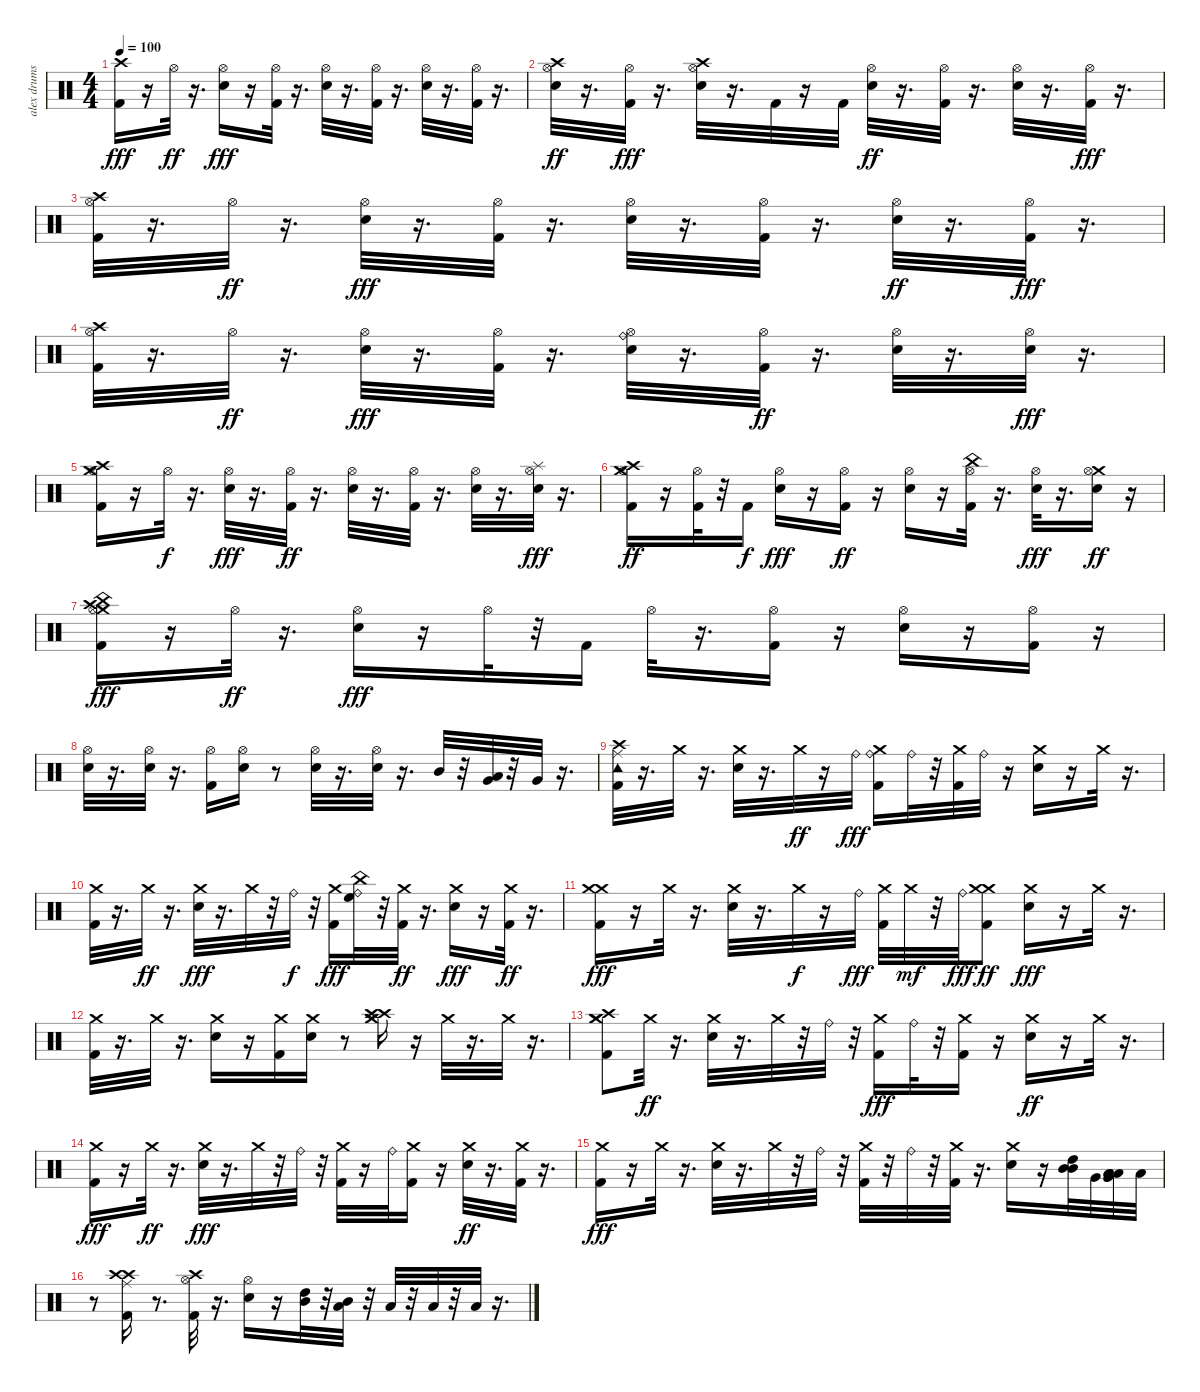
\track ("alex drums" "alex drums") {instrument percussion}
\staff {score}
\articulation defaults
\ts (4 4)
\tempo 100
\clef neutral
\ks c
("Crash high (hit)" "Kick (hit) 2").16{dy fff} r.16 "Hi-Hat (open)".32{dy ff} r.16{d} ("Electric Snare (hit)" "Hi-Hat (open)").16{dy fff} r.16 ("Hi-Hat (open)" "Kick (hit) 2").32 r.16{d} ("Electric Snare (hit)" "Hi-Hat (open)").32 r.16{d} ("Kick (hit) 2" "Hi-Hat (open)").32 r.16{d} ("Electric Snare (hit)" "Hi-Hat (open)").32 r.16{d} ("Hi-Hat (open)" "Kick (hit) 2").32 r.16{d} |
("Electric Snare (hit)" "Hi-Hat (open)" "Crash high (hit)").32{dy ff} r.16{d} ("Kick (hit) 2" "Hi-Hat (open)").32{dy fff} r.16{d} ("Crash high (hit)" "Electric Snare (hit)" "Hi-Hat (open)").32 r.16{d} "Kick (hit) 2".32 r.16 "Kick (hit) 2".32 ("Electric Snare (hit)" "Hi-Hat (open)").32{dy ff} r.16{d} ("Hi-Hat (open)" "Kick (hit) 2").32 r.16{d} ("Hi-Hat (open)" "Electric Snare (hit)").32 r.16{d} ("Hi-Hat (open)" "Kick (hit) 2").32{dy fff} r.16{d} |
("Kick (hit) 2" "Hi-Hat (open)" "Crash high (hit)").32 r.16{d} "Hi-Hat (open)".32{dy ff} r.16{d} ("Hi-Hat (open)" "Electric Snare (hit)").32{dy fff} r.16{d} ("Hi-Hat (open)" "Kick (hit) 2").32 r.16{d} ("Electric Snare (hit)" "Hi-Hat (open)").32 r.16{d} ("Hi-Hat (open)" "Kick (hit) 2").32 r.16{d} ("Hi-Hat (open)" "Electric Snare (hit)").32{dy ff} r.16{d} ("Kick (hit) 2" "Hi-Hat (open)").32{dy fff} r.16{d} |
("Hi-Hat (open)" "Kick (hit) 2" "Crash high (hit)").32 r.16{d} "Hi-Hat (open)".32{dy ff} r.16{d} ("Hi-Hat (open)" "Electric Snare (hit)").32{dy fff} r.16{d} ("Hi-Hat (open)" "Kick (hit) 2").32 r.16{d} ("Ride (bell)" "Hi-Hat (open)" "Electric Snare (hit)").32 r.16{d} ("Hi-Hat (open)" "Kick (hit) 2").32{dy ff} r.16{d} ("Hi-Hat (open)" "Electric Snare (hit)").32 r.16{d} ("Hi-Hat (open)" "Electric Snare (hit)").32{dy fff} r.16{d} |
("Crash medium (hit)" "Crash high (hit)" "Hi-Hat (open)" "Kick (hit) 2").16 r.16 "Hi-Hat (open)".32{dy f} r.16{d} ("Electric Snare (hit)" "Hi-Hat (open)").32{dy fff} r.16{d} ("Hi-Hat (open)" "Kick (hit) 2").32{dy ff} r.16{d} ("Hi-Hat (open)" "Electric Snare (hit)").32 r.16{d} ("Hi-Hat (open)" "Kick (hit) 2").32 r.16{d} ("Hi-Hat (open)" "Electric Snare (hit)").32 r.16{d} ("Splash (hit)" "Hi-Hat (open)" "Electric Snare (hit)").32{dy fff} r.16{d} |
("Crash medium (hit)" "Hi-Hat (open)" "Crash high (hit)" "Kick (hit) 2").16{dy ff} r.16 ("Hi-Hat (open)" "Kick (hit) 2").32 r.32 "Kick (hit) 2".16{dy f} ("Hi-Hat (open)" "Electric Snare (hit)").16{dy fff} r.16 ("Hi-Hat (open)" "Kick (hit) 2").16{dy ff} r.16 ("Hi-Hat (open)" "Electric Snare (hit)").16 r.16 ("China (hit)" "Hi-Hat (open)" "Kick (hit) 2").32 r.16{d} ("Electric Snare (hit)" "Hi-Hat (open)").32{dy fff} r.16{d} ("Crash medium (hit)" "Hi-Hat (open)" "Electric Snare (hit)").16{dy ff} r.16 |
("Crash medium (hit)" "Hi-Hat (open)" "Crash high (hit)" "Kick (hit) 2" "China (hit)").16{dy fff} r.16 "Hi-Hat (open)".32{dy ff} r.16{d} ("Hi-Hat (open)" "Electric Snare (hit)").16{dy fff} r.16 "Hi-Hat (open)".32 r.32 "Kick (hit) 2".16 "Hi-Hat (open)".32 r.16{d} ("Hi-Hat (open)" "Kick (hit) 2").16 r.16 ("Hi-Hat (open)" "Electric Snare (hit)").16 r.16 ("Kick (hit) 2" "Hi-Hat (open)").16 r.16 |
("Hi-Hat (open)" "Electric Snare (hit)").32 r.16{d} ("Hi-Hat (open)" "Electric Snare (hit)").32 r.16{d} ("Hi-Hat (open)" "Kick (hit) 2").16 ("Hi-Hat (open)" "Electric Snare (hit)").16 r.8 ("Hi-Hat (open)" "Electric Snare (hit)").32 r.16{d} ("Hi-Hat (open)" "Electric Snare (hit)").32 r.16{d} "Mid Tom (hit)".32 r.32 ("Low Tom (hit)" "Very Low Tom (hit)").32 r.32 "Very Low Tom (hit)".32 r.16{d} |
("Tambourine (hit)" "Ride (middle)" "Crash high (hit)" "Kick (hit) 2").32 r.16{d} "Crash medium (hit)".32 r.16{d} ("Crash medium (hit)" "Electric Snare (hit)").32 r.16{d} "Crash medium (hit)".32{dy ff} r.16 "Ride (bell)".32{dy fff} ("Kick (hit) 2" "Crash medium (hit)" "Ride (bell)").16 "Ride (bell)".32 r.32 ("Crash medium (hit)" "Kick (hit) 2").32 "Ride (bell)".32 r.16 ("Electric Snare (hit)" "Crash medium (hit)").16 r.16 "Crash medium (hit)".32 r.16{d} |
("Crash medium (hit)" "Kick (hit) 2").32 r.16{d} "Crash medium (hit)".32{dy ff} r.16{d} ("Crash medium (hit)" "Electric Snare (hit)").32{dy fff} r.16{d} "Crash medium (hit)".32 r.32 "Ride (bell)".32{dy f} r.32 ("Kick (hit) 2" "Crash medium (hit)").16{dy fff} ("High Floor Tom (hit)" "Ride (bell)" "China (hit)").32 r.32 ("Kick (hit) 2" "Crash medium (hit)").32{dy ff} r.16{d} ("Electric Snare (hit)" "Crash medium (hit)").16{dy fff} r.16 ("Crash medium (hit)" "Kick (hit) 2").32{dy ff} r.16{d} |
("Crash medium (hit)" "Crash medium (hit)" "Kick (hit) 2").16{dy fff} r.16 "Crash medium (hit)".32 r.16{d} ("Crash medium (hit)" "Electric Snare (hit)").32 r.16{d} "Crash medium (hit)".32{dy f} r.16 "Ride (bell)".32{dy fff} ("Crash medium (hit)" "Kick (hit) 2").32 "Crash medium (hit)".32{dy mf} r.32 "Ride (bell)".32{dy fff} ("Kick (hit) 2" "Crash medium (hit)" "Crash medium (hit)").8{dy ff} ("Crash medium (hit)" "Electric Snare (hit)").16{dy fff} r.16 "Crash medium (hit)".32 r.16{d} |
("Crash medium (hit)" "Kick (hit) 2").32 r.16{d} "Crash medium (hit)".32 r.16{d} ("Crash medium (hit)" "Electric Snare (hit)").16 r.16 ("Crash medium (hit)" "Kick (hit) 2").16 ("Crash medium (hit)" "Electric Snare (hit)").16 r.8 ("Crash high (hit)" "Crash medium (hit)" "Crash high (hit)" "Crash medium (hit)").16 r.16 "Crash medium (hit)".32 r.16{d} "Crash medium (hit)".32 r.16{d} |
("Crash high (hit)" "Crash medium (hit)" "Crash medium (hit)" "Kick (hit) 2").8 "Crash medium (hit)".32{dy ff} r.16{d} ("Crash medium (hit)" "Electric Snare (hit)").32 r.16{d} "Crash medium (hit)".32 r.32 "Ride (bell)".32 r.32 ("Crash medium (hit)" "Kick (hit) 2").16{dy fff} "Ride (bell)".32 r.32 ("Crash medium (hit)" "Kick (hit) 2").16 r.16 ("Crash medium (hit)" "Electric Snare (hit)").16{dy ff} r.16 "Crash medium (hit)".32 r.16{d} |
("Kick (hit) 2" "Crash medium (hit)").16{dy fff} r.16 "Crash medium (hit)".32{dy ff} r.16{d} ("Crash medium (hit)" "Electric Snare (hit)").32{dy fff} r.16{d} "Crash medium (hit)".32 r.32 "Ride (bell)".32 r.32 ("Crash medium (hit)" "Kick (hit) 2").32 r.16 "Ride (bell)".32 ("Crash medium (hit)" "Kick (hit) 2").16 r.16 ("Crash medium (hit)" "Electric Snare (hit)").32{dy ff} r.16{d} ("Kick (hit) 2" "Crash medium (hit)").32 r.16{d} |
("Kick (hit) 2" "Crash medium (hit)").16{dy fff} r.16 "Crash medium (hit)".32 r.16{d} ("Crash medium (hit)" "Electric Snare (hit)").32 r.16{d} "Crash medium (hit)".32 r.32 "Ride (bell)".32 r.32 ("Crash medium (hit)" "Kick (hit) 2").32 r.32 "Ride (bell)".32 r.32 ("Kick (hit) 2" "Crash medium (hit)").32 r.16{d} ("Crash medium (hit)" "Electric Snare (hit)").16 r.16 ("Mid Tom (hit)" "Mid Tom (hit)" "High Tom (hit)").32 "Very Low Tom (hit)".32 ("Low Tom (hit)" "Very Low Tom (hit)" "Very Low Tom (hit)" "Low Floor Tom (hit)" "Low Tom (hit)").32 "Low Floor Tom (hit)".32 |
r.8 ("Crash high (hit)" "Ride (middle)" "Crash high (hit)" "Kick (hit) 2").16 r.8{d} ("Hi-Hat (open)" "Crash high (hit)" "Kick (hit) 2").32 r.16{d} ("Hi-Hat (open)" "Electric Snare (hit)").16 r.16 ("High Tom (hit)" "Mid Tom (hit)").32 r.32 ("Low Tom (hit)" "Mid Tom (hit)").32 r.32 "Low Tom (hit)".32 r.32 "Low Floor Tom (hit)".32 r.32 "Low Floor Tom (hit)".32 r.16{d}
